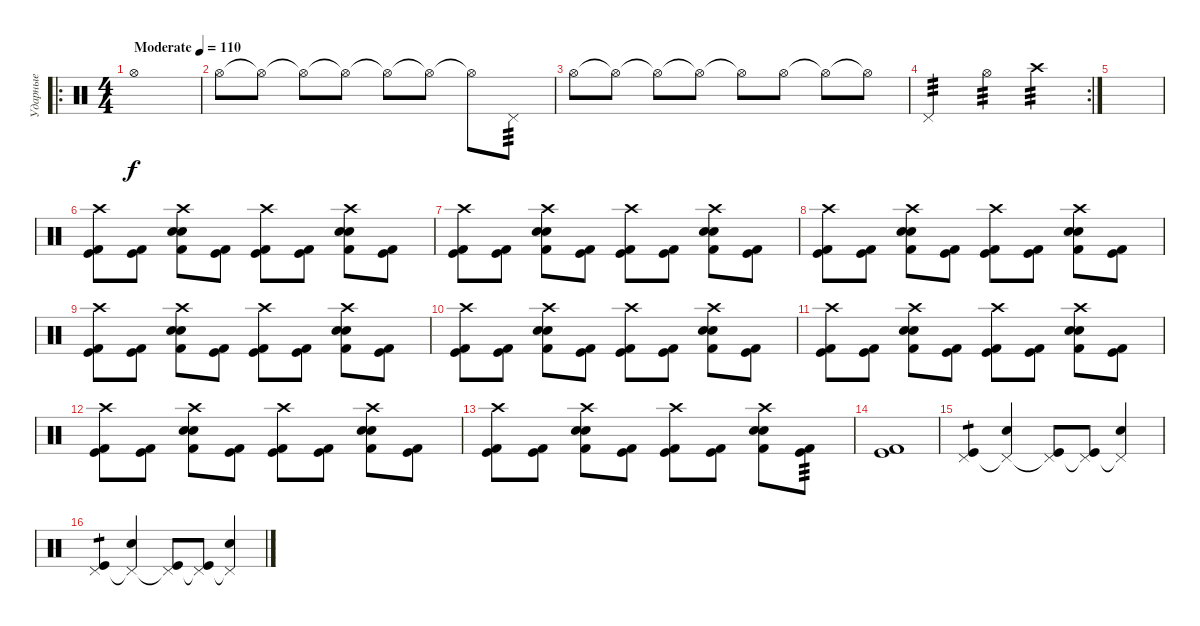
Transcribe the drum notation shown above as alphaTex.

\track ("Ударные" "Ударные") {instrument percussion}
\staff {score}
\articulation defaults
\ro
\ts (4 4)
\tempo (110 "Moderate")
\clef neutral
\ks c "Hi-Hat (open)".1{dy f}
|
"Hi-Hat (open)".8 "Hi-Hat (open)"{t}.8 "Hi-Hat (open)"{t}.8 "Hi-Hat (open)"{t}.8 "Hi-Hat (open)"{t}.8 "Hi-Hat (open)"{t}.8 "Hi-Hat (open)"{t}.8 "Pedal Hi-Hat (hit)".8{tp 3} |
"Hi-Hat (open)".8 "Hi-Hat (open)"{t}.8 "Hi-Hat (open)"{t}.8 "Hi-Hat (open)"{t}.8 "Hi-Hat (open)"{t}.8 "Hi-Hat (open)".8 "Hi-Hat (open)"{t}.8 "Hi-Hat (open)"{t}.8 |
\rc 2 "Pedal Hi-Hat (hit)".2{tp 3} "Hi-Hat (open)".4{tp 3} "Crash high (hit)".4{tp 3}
|
|
("Crash high (hit)" "Kick (hit)" "Kick (hit) 2").8 ("Kick (hit)" "Kick (hit) 2").8 ("Crash high (hit)" "Snare (hit) 2" "Electric Snare (hit)" "Kick (hit) 2").8 ("Kick (hit)" "Kick (hit) 2").8 ("Crash high (hit)" "Kick (hit)" "Kick (hit) 2").8 ("Kick (hit)" "Kick (hit) 2").8 ("Crash high (hit)" "Snare (hit) 2" "Electric Snare (hit)" "Kick (hit) 2").8 ("Kick (hit)" "Kick (hit) 2").8 |
("Crash high (hit)" "Kick (hit)" "Kick (hit) 2").8 ("Kick (hit)" "Kick (hit) 2").8 ("Crash high (hit)" "Snare (hit) 2" "Electric Snare (hit)" "Kick (hit) 2").8 ("Kick (hit)" "Kick (hit) 2").8 ("Crash high (hit)" "Kick (hit)" "Kick (hit) 2").8 ("Kick (hit)" "Kick (hit) 2").8 ("Crash high (hit)" "Snare (hit) 2" "Electric Snare (hit)" "Kick (hit) 2").8 ("Kick (hit)" "Kick (hit) 2").8 |
("Crash high (hit)" "Kick (hit)" "Kick (hit) 2").8 ("Kick (hit)" "Kick (hit) 2").8 ("Crash high (hit)" "Snare (hit) 2" "Electric Snare (hit)" "Kick (hit) 2").8 ("Kick (hit)" "Kick (hit) 2").8 ("Crash high (hit)" "Kick (hit)" "Kick (hit) 2").8 ("Kick (hit)" "Kick (hit) 2").8 ("Crash high (hit)" "Snare (hit) 2" "Electric Snare (hit)" "Kick (hit) 2").8 ("Kick (hit)" "Kick (hit) 2").8 |
("Crash high (hit)" "Kick (hit)" "Kick (hit) 2").8 ("Kick (hit)" "Kick (hit) 2").8 ("Crash high (hit)" "Snare (hit) 2" "Electric Snare (hit)" "Kick (hit) 2").8 ("Kick (hit)" "Kick (hit) 2").8 ("Crash high (hit)" "Kick (hit)" "Kick (hit) 2").8 ("Kick (hit)" "Kick (hit) 2").8 ("Crash high (hit)" "Snare (hit) 2" "Electric Snare (hit)" "Kick (hit) 2").8 ("Kick (hit)" "Kick (hit) 2").8 |
("Crash high (hit)" "Kick (hit)" "Kick (hit) 2").8 ("Kick (hit)" "Kick (hit) 2").8 ("Crash high (hit)" "Snare (hit) 2" "Electric Snare (hit)" "Kick (hit) 2").8 ("Kick (hit)" "Kick (hit) 2").8 ("Crash high (hit)" "Kick (hit)" "Kick (hit) 2").8 ("Kick (hit)" "Kick (hit) 2").8 ("Crash high (hit)" "Snare (hit) 2" "Electric Snare (hit)" "Kick (hit) 2").8 ("Kick (hit)" "Kick (hit) 2").8 |
("Crash high (hit)" "Kick (hit)" "Kick (hit) 2").8 ("Kick (hit)" "Kick (hit) 2").8 ("Crash high (hit)" "Snare (hit) 2" "Electric Snare (hit)" "Kick (hit) 2").8 ("Kick (hit)" "Kick (hit) 2").8 ("Crash high (hit)" "Kick (hit)" "Kick (hit) 2").8 ("Kick (hit)" "Kick (hit) 2").8 ("Crash high (hit)" "Snare (hit) 2" "Electric Snare (hit)" "Kick (hit) 2").8 ("Kick (hit)" "Kick (hit) 2").8 |
("Crash high (hit)" "Kick (hit)" "Kick (hit) 2").8 ("Kick (hit)" "Kick (hit) 2").8 ("Crash high (hit)" "Snare (hit) 2" "Electric Snare (hit)" "Kick (hit) 2").8 ("Kick (hit)" "Kick (hit) 2").8 ("Crash high (hit)" "Kick (hit)" "Kick (hit) 2").8 ("Kick (hit)" "Kick (hit) 2").8 ("Crash high (hit)" "Snare (hit) 2" "Electric Snare (hit)" "Kick (hit) 2").8 ("Kick (hit)" "Kick (hit) 2").8 |
("Crash high (hit)" "Kick (hit)" "Kick (hit) 2").8 ("Kick (hit)" "Kick (hit) 2").8 ("Crash high (hit)" "Snare (hit) 2" "Electric Snare (hit)" "Kick (hit) 2").8 ("Kick (hit)" "Kick (hit) 2").8 ("Crash high (hit)" "Kick (hit)" "Kick (hit) 2").8 ("Kick (hit)" "Kick (hit) 2").8 ("Crash high (hit)" "Snare (hit) 2" "Electric Snare (hit)" "Kick (hit) 2").8 ("Kick (hit)" "Kick (hit) 2").8{tp 3} |
("Kick (hit)" "Kick (hit) 2").1 |
("Pedal Hi-Hat (hit)" "Kick (hit)").4{tp 1} ("Pedal Hi-Hat (hit)"{t} "Electric Snare (hit)").4 ("Pedal Hi-Hat (hit)"{t} "Kick (hit)").8 ("Pedal Hi-Hat (hit)"{t} "Kick (hit)").8 ("Pedal Hi-Hat (hit)"{t} "Electric Snare (hit)").4 |
("Pedal Hi-Hat (hit)" "Kick (hit)").4{tp 1} ("Pedal Hi-Hat (hit)"{t} "Electric Snare (hit)").4 ("Pedal Hi-Hat (hit)"{t} "Kick (hit)").8 ("Pedal Hi-Hat (hit)"{t} "Kick (hit)").8 ("Pedal Hi-Hat (hit)"{t} "Electric Snare (hit)").4
